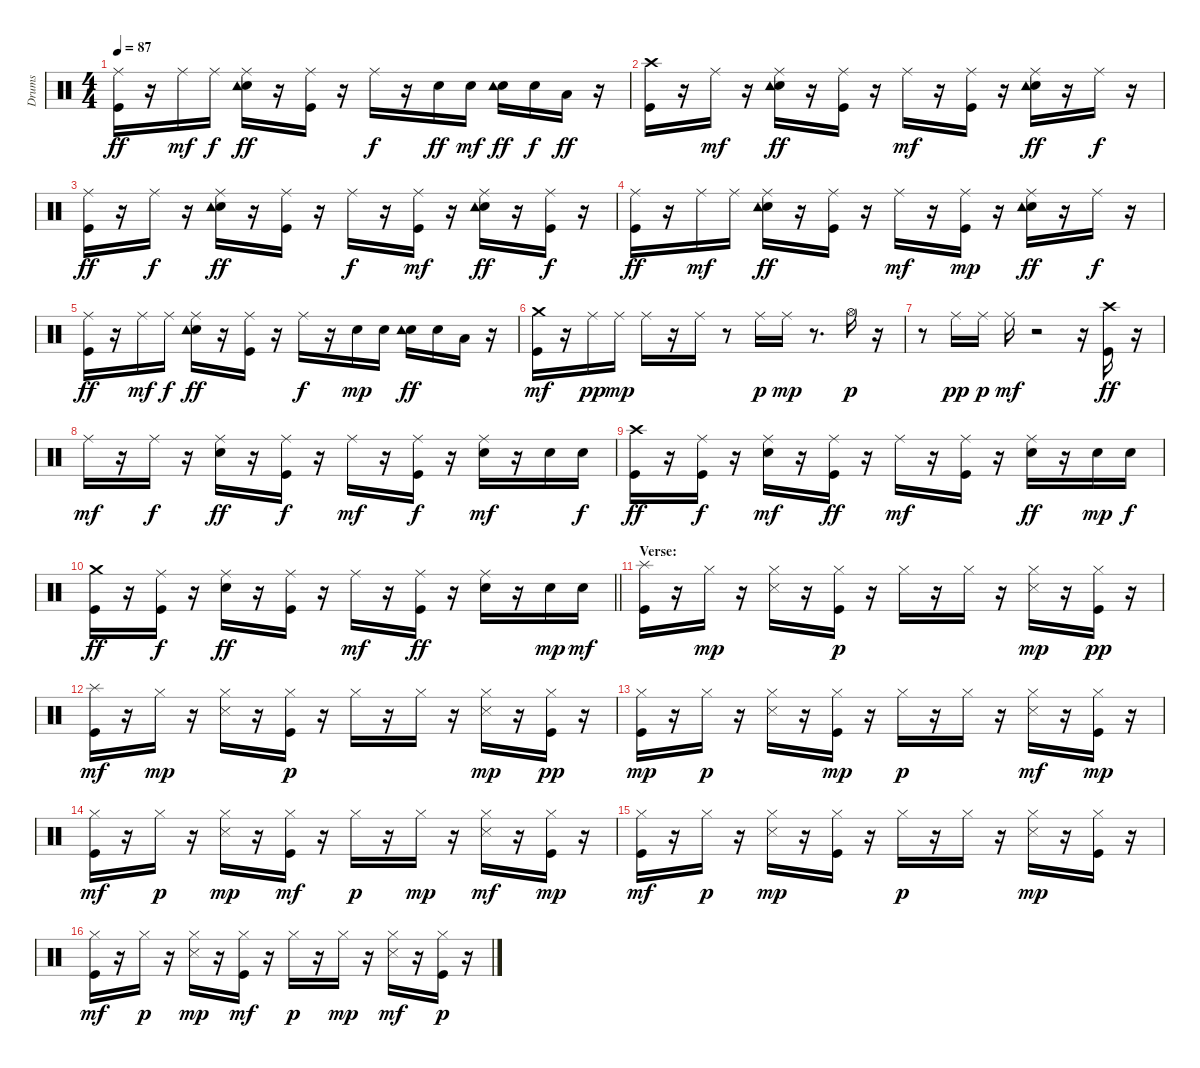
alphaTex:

\track ("Drums" "Drums") {instrument percussion}
\staff {score}
\articulation defaults
\ts (4 4)
\tempo 87
\clef neutral
\ks c
("Ride (middle)" "Kick (hit)").16{dy ff} r.16 "Ride (middle)".16{dy mf} "Ride (middle)".16{dy f} ("Ride (middle)" "Electric Snare (hit)" "Tambourine (hit)").16{dy ff} r.16 ("Ride (middle)" "Kick (hit)").16 r.16 "Ride (middle)".16{dy f} r.16 "Electric Snare (hit)".16{dy ff} "Electric Snare (hit)".16{dy mf} ("Electric Snare (hit)" "Tambourine (hit)").16{dy ff} "Electric Snare (hit)".16{dy f} "Low Floor Tom (hit)".16{dy ff} r.16 |
("Crash high (hit)" "Kick (hit)").16 r.16 "Ride (middle)".16{dy mf} r.16 ("Ride (middle)" "Electric Snare (hit)" "Tambourine (hit)").16{dy ff} r.16 ("Ride (middle)" "Kick (hit)").16 r.16 "Ride (middle)".16{dy mf} r.16 ("Ride (middle)" "Kick (hit)").16 r.16 ("Ride (middle)" "Electric Snare (hit)" "Tambourine (hit)").16{dy ff} r.16 "Ride (middle)".16{dy f} r.16 |
("Ride (middle)" "Kick (hit)").16{dy ff} r.16 "Ride (middle)".16{dy f} r.16 ("Ride (middle)" "Electric Snare (hit)" "Tambourine (hit)").16{dy ff} r.16 ("Ride (middle)" "Kick (hit)").16 r.16 "Ride (middle)".16{dy f} r.16 ("Ride (middle)" "Kick (hit)").16{dy mf} r.16 ("Ride (middle)" "Electric Snare (hit)" "Tambourine (hit)").16{dy ff} r.16 ("Ride (middle)" "Kick (hit)").16{dy f} r.16 |
("Ride (middle)" "Kick (hit)").16{dy ff} r.16 "Ride (middle)".16{dy mf} "Ride (middle)".16 ("Ride (middle)" "Electric Snare (hit)" "Tambourine (hit)").16{dy ff} r.16 ("Ride (middle)" "Kick (hit)").16 r.16 "Ride (middle)".16{dy mf} r.16 ("Ride (middle)" "Kick (hit)").16{dy mp} r.16 ("Ride (middle)" "Electric Snare (hit)" "Tambourine (hit)").16{dy ff} r.16 "Ride (middle)".16{dy f} r.16 |
("Ride (middle)" "Kick (hit)").16{dy ff} r.16 "Ride (middle)".16{dy mf} "Ride (middle)".16{dy f} ("Ride (middle)" "Electric Snare (hit)" "Tambourine (hit)").16{dy ff} r.16 ("Ride (middle)" "Kick (hit)").16 r.16 "Ride (middle)".16{dy f} r.16 "Electric Snare (hit)".16{dy mp} "Electric Snare (hit)".16 ("Electric Snare (hit)" "Tambourine (hit)").16{dy ff} "Electric Snare (hit)".16 "Low Floor Tom (hit)".16 r.16 |
("Crash medium (hit)" "Kick (hit)").16{dy mf} r.16 "Ride (middle)".16{dy pp} "Ride (middle)".16{dy mp} "Ride (middle)".16 r.16 "Ride (middle)".16 r.8 "Ride (middle)".16{dy p} "Ride (middle)".16{dy mp} r.8{d} "Hi-Hat (open)".16{dy p} r.16 |
r.8 "Ride (middle)".16{dy pp} "Ride (middle)".16{dy p} "Ride (middle)".16{dy mf} r.2 r.16 ("Crash high (hit)" "Kick (hit)").16{dy ff} r.16 |
"Ride (middle)".16{dy mf} r.16 "Ride (middle)".16{dy f} r.16 ("Ride (middle)" "Electric Snare (hit)").16{dy ff} r.16 ("Ride (middle)" "Kick (hit)").16{dy f} r.16 "Ride (middle)".16{dy mf} r.16 ("Ride (middle)" "Kick (hit)").16{dy f} r.16 ("Ride (middle)" "Electric Snare (hit)").16{dy mf} r.16 "Electric Snare (hit)".16 "Electric Snare (hit)".16{dy f} |
("Crash high (hit)" "Kick (hit)").16{dy ff} r.16 ("Ride (middle)" "Kick (hit)").16{dy f} r.16 ("Ride (middle)" "Electric Snare (hit)").16{dy mf} r.16 ("Ride (middle)" "Kick (hit)").16{dy ff} r.16 "Ride (middle)".16{dy mf} r.16 ("Ride (middle)" "Kick (hit)").16 r.16 ("Ride (middle)" "Electric Snare (hit)").16{dy ff} r.16 "Electric Snare (hit)".16{dy mp} "Electric Snare (hit)".16{dy f} |
\barLineRight lightlight
("Crash medium (hit)" "Kick (hit)").16{dy ff} r.16 ("Ride (middle)" "Kick (hit)").16{dy f} r.16 ("Ride (middle)" "Electric Snare (hit)").16{dy ff} r.16 ("Ride (middle)" "Kick (hit)").16 r.16 "Ride (middle)".16{dy mf} r.16 ("Ride (middle)" "Kick (hit)").16{dy ff} r.16 ("Ride (middle)" "Electric Snare (hit)").16 r.16 "Electric Snare (hit)".16{dy mp} "Electric Snare (hit)".16{dy mf} |
\section ("" "Verse:")
("Kick (hit)" "Splash (hit)").16 r.16 "Hi-Hat (closed)".16{dy mp} r.16 ("Snare (side stick) 3" "Hi-Hat (closed)").16 r.16 ("Kick (hit)" "Hi-Hat (closed)").16{dy p} r.16 "Hi-Hat (closed)".16 r.16 "Hi-Hat (closed)".16 r.16 ("Snare (side stick) 3" "Hi-Hat (closed)").16{dy mp} r.16 ("Kick (hit)" "Hi-Hat (closed)").16{dy pp} r.16 |
("Kick (hit)" "Splash (hit)").16{dy mf} r.16 "Hi-Hat (closed)".16{dy mp} r.16 ("Snare (side stick) 3" "Hi-Hat (closed)").16 r.16 ("Kick (hit)" "Hi-Hat (closed)").16{dy p} r.16 "Hi-Hat (closed)".16 r.16 "Hi-Hat (closed)".16 r.16 ("Snare (side stick) 3" "Hi-Hat (closed)").16{dy mp} r.16 ("Kick (hit)" "Hi-Hat (closed)").16{dy pp} r.16 |
("Kick (hit)" "Hi-Hat (closed)").16{dy mp} r.16 "Hi-Hat (closed)".16{dy p} r.16 ("Snare (side stick) 3" "Hi-Hat (closed)").16 r.16 ("Kick (hit)" "Hi-Hat (closed)").16{dy mp} r.16 "Hi-Hat (closed)".16{dy p} r.16 "Hi-Hat (closed)".16 r.16 ("Snare (side stick) 3" "Hi-Hat (closed)").16{dy mf} r.16 ("Kick (hit)" "Hi-Hat (closed)").16{dy mp} r.16 |
("Kick (hit)" "Hi-Hat (closed)").16{dy mf} r.16 "Hi-Hat (closed)".16{dy p} r.16 ("Snare (side stick) 3" "Hi-Hat (closed)").16{dy mp} r.16 ("Kick (hit)" "Hi-Hat (closed)").16{dy mf} r.16 "Hi-Hat (closed)".16{dy p} r.16 "Hi-Hat (closed)".16{dy mp} r.16 ("Snare (side stick) 3" "Hi-Hat (closed)").16{dy mf} r.16 ("Kick (hit)" "Hi-Hat (closed)").16{dy mp} r.16 |
("Kick (hit)" "Hi-Hat (closed)").16{dy mf} r.16 "Hi-Hat (closed)".16{dy p} r.16 ("Snare (side stick) 3" "Hi-Hat (closed)").16{dy mp} r.16 ("Kick (hit)" "Hi-Hat (closed)").16 r.16 "Hi-Hat (closed)".16{dy p} r.16 "Hi-Hat (closed)".16 r.16 ("Snare (side stick) 3" "Hi-Hat (closed)").16{dy mp} r.16 ("Kick (hit)" "Hi-Hat (closed)").16 r.16 |
("Kick (hit)" "Hi-Hat (closed)").16{dy mf} r.16 "Hi-Hat (closed)".16{dy p} r.16 ("Snare (side stick) 3" "Hi-Hat (closed)").16{dy mp} r.16 ("Kick (hit)" "Hi-Hat (closed)").16{dy mf} r.16 "Hi-Hat (closed)".16{dy p} r.16 "Hi-Hat (closed)".16{dy mp} r.16 ("Snare (side stick) 3" "Hi-Hat (closed)").16{dy mf} r.16 ("Kick (hit)" "Hi-Hat (closed)").16{dy p} r.16
